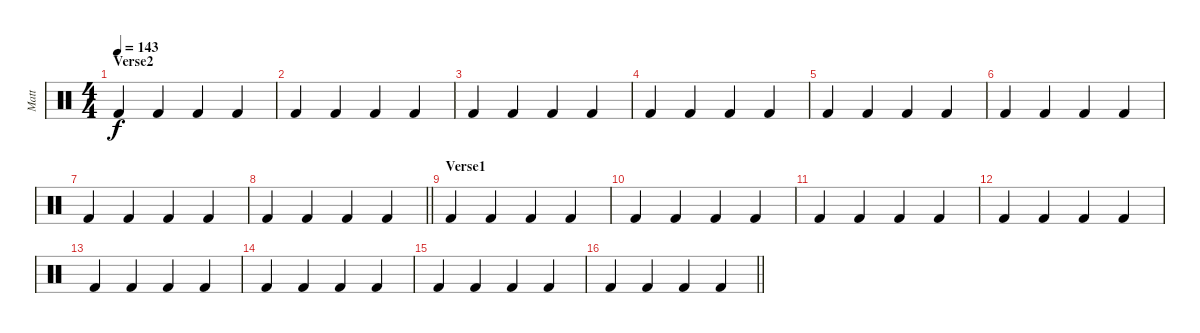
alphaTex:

\track ("Matt" "Matt") {instrument percussion}
\staff {score}
\articulation defaults
\ts (4 4)
\section ("" "Verse2")
\tempo 143
\clef neutral
\ks c "Kick (hit) 2".4{dy f} "Kick (hit) 2".4 "Kick (hit) 2".4 "Kick (hit) 2".4
|
"Kick (hit) 2".4 "Kick (hit) 2".4 "Kick (hit) 2".4 "Kick (hit) 2".4 |
"Kick (hit) 2".4 "Kick (hit) 2".4 "Kick (hit) 2".4 "Kick (hit) 2".4 |
"Kick (hit) 2".4 "Kick (hit) 2".4 "Kick (hit) 2".4 "Kick (hit) 2".4 |
"Kick (hit) 2".4 "Kick (hit) 2".4 "Kick (hit) 2".4 "Kick (hit) 2".4 |
"Kick (hit) 2".4 "Kick (hit) 2".4 "Kick (hit) 2".4 "Kick (hit) 2".4 |
"Kick (hit) 2".4 "Kick (hit) 2".4 "Kick (hit) 2".4 "Kick (hit) 2".4 |
\barLineRight lightlight "Kick (hit) 2".4 "Kick (hit) 2".4 "Kick (hit) 2".4 "Kick (hit) 2".4
|
\section ("" "Verse1")
"Kick (hit) 2".4 "Kick (hit) 2".4 "Kick (hit) 2".4 "Kick (hit) 2".4 |
"Kick (hit) 2".4 "Kick (hit) 2".4 "Kick (hit) 2".4 "Kick (hit) 2".4 |
"Kick (hit) 2".4 "Kick (hit) 2".4 "Kick (hit) 2".4 "Kick (hit) 2".4 |
"Kick (hit) 2".4 "Kick (hit) 2".4 "Kick (hit) 2".4 "Kick (hit) 2".4 |
"Kick (hit) 2".4 "Kick (hit) 2".4 "Kick (hit) 2".4 "Kick (hit) 2".4 |
"Kick (hit) 2".4 "Kick (hit) 2".4 "Kick (hit) 2".4 "Kick (hit) 2".4 |
"Kick (hit) 2".4 "Kick (hit) 2".4 "Kick (hit) 2".4 "Kick (hit) 2".4 |
\barLineRight lightlight "Kick (hit) 2".4 "Kick (hit) 2".4 "Kick (hit) 2".4 "Kick (hit) 2".4
